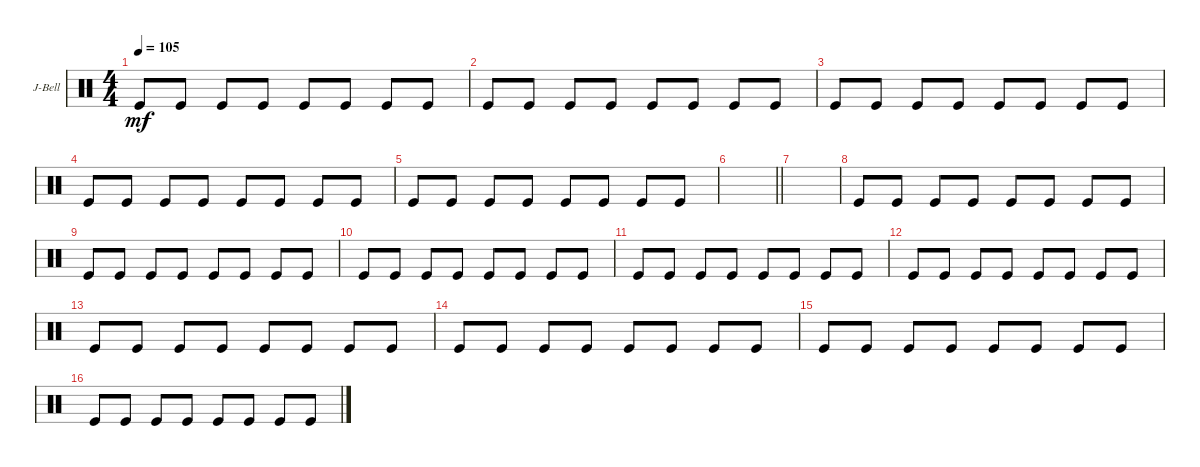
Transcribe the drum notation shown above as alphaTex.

\bracketExtendMode groupsimilarinstruments
\firstSystemTrackNameOrientation horizontal
\otherSystemsTrackNameOrientation horizontal
\track ("Jingle Bell" "J-Bell") {instrument percussion}
\staff {score}
\articulation defaults
\ts (4 4)
\tempo 105
\clef neutral
\scale
0.333333
\ks c "Kick (hit)".8{dy mf} "Kick (hit)".8 "Kick (hit)".8 "Kick (hit)".8 "Kick (hit)".8 "Kick (hit)".8 "Kick (hit)".8 "Kick (hit)".8
|
\scale
0.333333 "Kick (hit)".8 "Kick (hit)".8 "Kick (hit)".8 "Kick (hit)".8 "Kick (hit)".8 "Kick (hit)".8 "Kick (hit)".8 "Kick (hit)".8 |
\scale
0.333333 "Kick (hit)".8 "Kick (hit)".8 "Kick (hit)".8 "Kick (hit)".8 "Kick (hit)".8 "Kick (hit)".8 "Kick (hit)".8 "Kick (hit)".8 |
\scale
0.333333 "Kick (hit)".8 "Kick (hit)".8 "Kick (hit)".8 "Kick (hit)".8 "Kick (hit)".8 "Kick (hit)".8 "Kick (hit)".8 "Kick (hit)".8 |
\scale
0.333333 "Kick (hit)".8 "Kick (hit)".8 "Kick (hit)".8 "Kick (hit)".8 "Kick (hit)".8 "Kick (hit)".8 "Kick (hit)".8 "Kick (hit)".8 |
\scale
0.333333
\barLineRight lightlight
|
\scale
0.333333 |
\scale
0.333333 "Kick (hit)".8 "Kick (hit)".8 "Kick (hit)".8 "Kick (hit)".8 "Kick (hit)".8 "Kick (hit)".8 "Kick (hit)".8 "Kick (hit)".8 |
\scale
0.333333 "Kick (hit)".8 "Kick (hit)".8 "Kick (hit)".8 "Kick (hit)".8 "Kick (hit)".8 "Kick (hit)".8 "Kick (hit)".8 "Kick (hit)".8 |
\scale
0.333333 "Kick (hit)".8 "Kick (hit)".8 "Kick (hit)".8 "Kick (hit)".8 "Kick (hit)".8 "Kick (hit)".8 "Kick (hit)".8 "Kick (hit)".8 |
\scale
0.333333 "Kick (hit)".8 "Kick (hit)".8 "Kick (hit)".8 "Kick (hit)".8 "Kick (hit)".8 "Kick (hit)".8 "Kick (hit)".8 "Kick (hit)".8 |
\scale
0.333333 "Kick (hit)".8 "Kick (hit)".8 "Kick (hit)".8 "Kick (hit)".8 "Kick (hit)".8 "Kick (hit)".8 "Kick (hit)".8 "Kick (hit)".8 |
\scale
0.333333 "Kick (hit)".8 "Kick (hit)".8 "Kick (hit)".8 "Kick (hit)".8 "Kick (hit)".8 "Kick (hit)".8 "Kick (hit)".8 "Kick (hit)".8 |
\scale
0.333333 "Kick (hit)".8 "Kick (hit)".8 "Kick (hit)".8 "Kick (hit)".8 "Kick (hit)".8 "Kick (hit)".8 "Kick (hit)".8 "Kick (hit)".8 |
\scale
0.333333 "Kick (hit)".8 "Kick (hit)".8 "Kick (hit)".8 "Kick (hit)".8 "Kick (hit)".8 "Kick (hit)".8 "Kick (hit)".8 "Kick (hit)".8 |
\scale
0.333333 "Kick (hit)".8 "Kick (hit)".8 "Kick (hit)".8 "Kick (hit)".8 "Kick (hit)".8 "Kick (hit)".8 "Kick (hit)".8 "Kick (hit)".8
